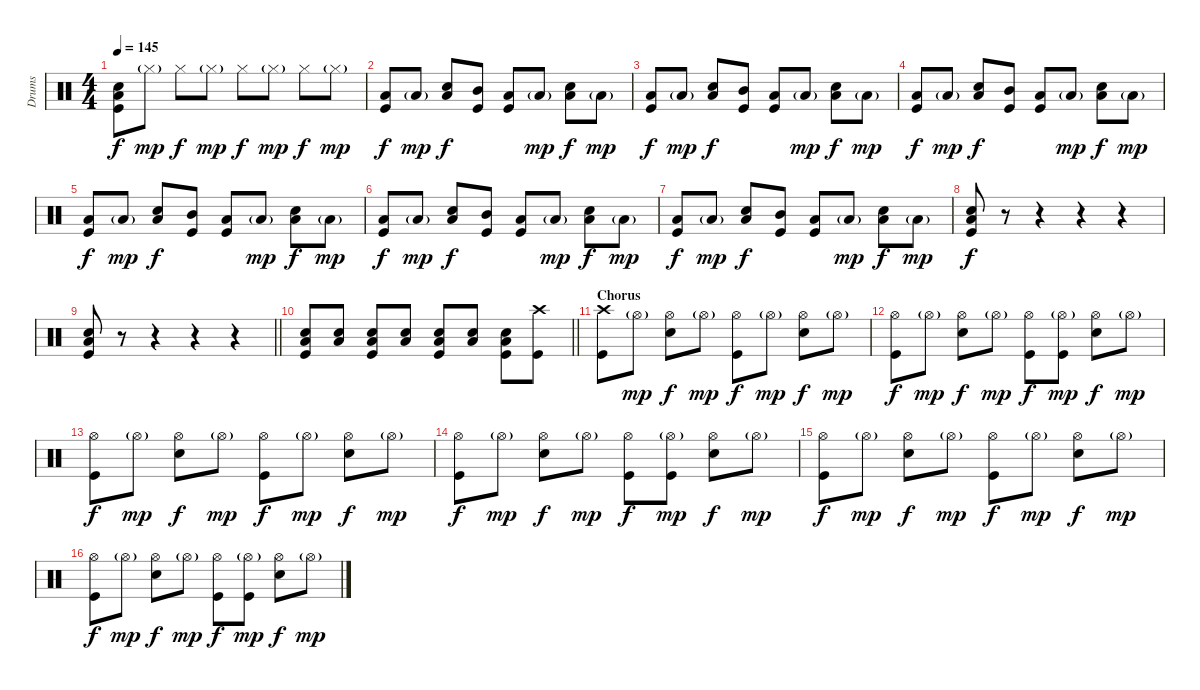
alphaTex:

\track ("Drums" "Drums") {instrument percussion}
\staff {score}
\articulation defaults
\ts (4 4)
\tempo 145
\clef neutral
\ks c
("Snare (hit) 2" "Low Floor Tom (hit)" "Kick (hit)").8{dy f} "Hi-Hat (closed)"{g}.8{dy mp} "Hi-Hat (closed)".8{dy f} "Hi-Hat (closed)"{g}.8{dy mp} "Hi-Hat (closed)".8{dy f} "Hi-Hat (closed)"{g}.8{dy mp} "Hi-Hat (closed)".8{dy f} "Hi-Hat (closed)"{g}.8{dy mp} |
("Low Floor Tom (hit)" "Kick (hit)").8{dy f} "Low Floor Tom (hit)"{g}.8{dy mp} ("Snare (hit) 2" "Low Floor Tom (hit)").8{dy f} ("Mid Tom (hit)" "Kick (hit)").8 ("Low Floor Tom (hit)" "Kick (hit)").8 "Low Floor Tom (hit)"{g}.8{dy mp} ("Snare (hit) 2" "Low Floor Tom (hit)").8{dy f} "Low Floor Tom (hit)"{g}.8{dy mp} |
("Low Floor Tom (hit)" "Kick (hit)").8{dy f} "Low Floor Tom (hit)"{g}.8{dy mp} ("Snare (hit) 2" "Low Floor Tom (hit)").8{dy f} ("Mid Tom (hit)" "Kick (hit)").8 ("Low Floor Tom (hit)" "Kick (hit)").8 "Low Floor Tom (hit)"{g}.8{dy mp} ("Snare (hit) 2" "Low Floor Tom (hit)").8{dy f} "Low Floor Tom (hit)"{g}.8{dy mp} |
("Low Floor Tom (hit)" "Kick (hit)").8{dy f} "Low Floor Tom (hit)"{g}.8{dy mp} ("Snare (hit) 2" "Low Floor Tom (hit)").8{dy f} ("Mid Tom (hit)" "Kick (hit)").8 ("Low Floor Tom (hit)" "Kick (hit)").8 "Low Floor Tom (hit)"{g}.8{dy mp} ("Snare (hit) 2" "Low Floor Tom (hit)").8{dy f} "Low Floor Tom (hit)"{g}.8{dy mp} |
("Low Floor Tom (hit)" "Kick (hit)").8{dy f} "Low Floor Tom (hit)"{g}.8{dy mp} ("Snare (hit) 2" "Low Floor Tom (hit)").8{dy f} ("Mid Tom (hit)" "Kick (hit)").8 ("Low Floor Tom (hit)" "Kick (hit)").8 "Low Floor Tom (hit)"{g}.8{dy mp} ("Snare (hit) 2" "Low Floor Tom (hit)").8{dy f} "Low Floor Tom (hit)"{g}.8{dy mp} |
("Low Floor Tom (hit)" "Kick (hit)").8{dy f} "Low Floor Tom (hit)"{g}.8{dy mp} ("Snare (hit) 2" "Low Floor Tom (hit)").8{dy f} ("Mid Tom (hit)" "Kick (hit)").8 ("Low Floor Tom (hit)" "Kick (hit)").8 "Low Floor Tom (hit)"{g}.8{dy mp} ("Snare (hit) 2" "Low Floor Tom (hit)").8{dy f} "Low Floor Tom (hit)"{g}.8{dy mp} |
("Low Floor Tom (hit)" "Kick (hit)").8{dy f} "Low Floor Tom (hit)"{g}.8{dy mp} ("Snare (hit) 2" "Low Floor Tom (hit)").8{dy f} ("Mid Tom (hit)" "Kick (hit)").8 ("Low Floor Tom (hit)" "Kick (hit)").8 "Low Floor Tom (hit)"{g}.8{dy mp} ("Snare (hit) 2" "Low Floor Tom (hit)").8{dy f} "Low Floor Tom (hit)"{g}.8{dy mp} |
("Snare (hit) 2" "Low Floor Tom (hit)" "Kick (hit)").8{dy f} r.8 r.4 r.4 r.4 |
\barLineRight lightlight
("Snare (hit) 2" "Low Floor Tom (hit)" "Kick (hit)").8 r.8 r.4 r.4 r.4 |
\section ("" "")
\barLineRight lightlight
("Snare (hit) 2" "Low Floor Tom (hit)" "Kick (hit)").8 ("Snare (hit) 2" "Low Floor Tom (hit)").8 ("Snare (hit) 2" "Low Floor Tom (hit)" "Kick (hit)").8 ("Snare (hit) 2" "Low Floor Tom (hit)").8 ("Snare (hit) 2" "Low Floor Tom (hit)" "Kick (hit)").8 ("Snare (hit) 2" "Low Floor Tom (hit)").8 ("Snare (hit) 2" "Low Floor Tom (hit)" "Kick (hit)").8 ("Crash high (hit)" "Kick (hit)").8 |
\section ("" "Chorus")
("Crash high (hit)" "Kick (hit)").8 "Hi-Hat (open)"{g}.8{dy mp} ("Hi-Hat (open)" "Snare (hit) 2").8{dy f} "Hi-Hat (open)"{g}.8{dy mp} ("Hi-Hat (open)" "Kick (hit)").8{dy f} "Hi-Hat (open)"{g}.8{dy mp} ("Hi-Hat (open)" "Snare (hit) 2").8{dy f} "Hi-Hat (open)"{g}.8{dy mp} |
("Hi-Hat (open)" "Kick (hit)").8{dy f} "Hi-Hat (open)"{g}.8{dy mp} ("Hi-Hat (open)" "Snare (hit) 2").8{dy f} "Hi-Hat (open)"{g}.8{dy mp} ("Hi-Hat (open)" "Kick (hit)").8{dy f} ("Hi-Hat (open)"{g} "Kick (hit)").8{dy mp} ("Hi-Hat (open)" "Snare (hit) 2").8{dy f} "Hi-Hat (open)"{g}.8{dy mp} |
("Hi-Hat (open)" "Kick (hit)").8{dy f} "Hi-Hat (open)"{g}.8{dy mp} ("Hi-Hat (open)" "Snare (hit) 2").8{dy f} "Hi-Hat (open)"{g}.8{dy mp} ("Hi-Hat (open)" "Kick (hit)").8{dy f} "Hi-Hat (open)"{g}.8{dy mp} ("Hi-Hat (open)" "Snare (hit) 2").8{dy f} "Hi-Hat (open)"{g}.8{dy mp} |
("Hi-Hat (open)" "Kick (hit)").8{dy f} "Hi-Hat (open)"{g}.8{dy mp} ("Hi-Hat (open)" "Snare (hit) 2").8{dy f} "Hi-Hat (open)"{g}.8{dy mp} ("Hi-Hat (open)" "Kick (hit)").8{dy f} ("Hi-Hat (open)"{g} "Kick (hit)").8{dy mp} ("Hi-Hat (open)" "Snare (hit) 2").8{dy f} "Hi-Hat (open)"{g}.8{dy mp} |
("Hi-Hat (open)" "Kick (hit)").8{dy f} "Hi-Hat (open)"{g}.8{dy mp} ("Hi-Hat (open)" "Snare (hit) 2").8{dy f} "Hi-Hat (open)"{g}.8{dy mp} ("Hi-Hat (open)" "Kick (hit)").8{dy f} "Hi-Hat (open)"{g}.8{dy mp} ("Hi-Hat (open)" "Snare (hit) 2").8{dy f} "Hi-Hat (open)"{g}.8{dy mp} |
("Hi-Hat (open)" "Kick (hit)").8{dy f} "Hi-Hat (open)"{g}.8{dy mp} ("Hi-Hat (open)" "Snare (hit) 2").8{dy f} "Hi-Hat (open)"{g}.8{dy mp} ("Hi-Hat (open)" "Kick (hit)").8{dy f} ("Hi-Hat (open)"{g} "Kick (hit)").8{dy mp} ("Hi-Hat (open)" "Snare (hit) 2").8{dy f} "Hi-Hat (open)"{g}.8{dy mp}
